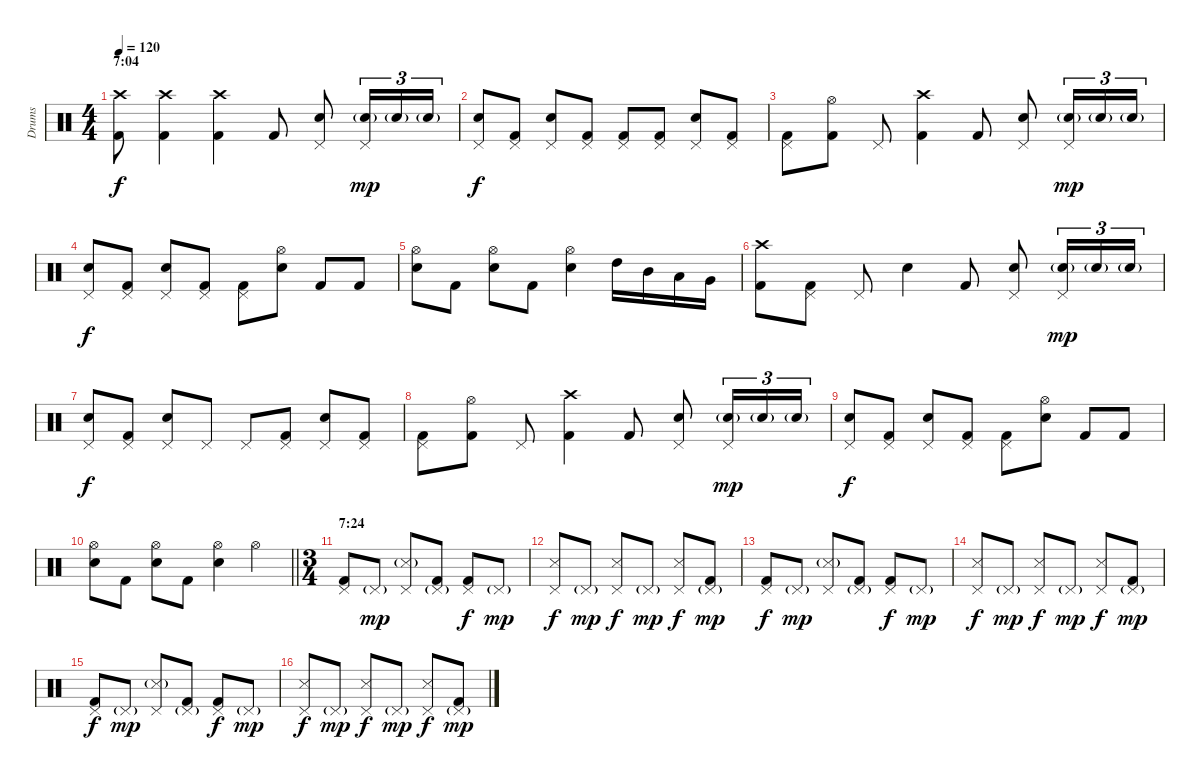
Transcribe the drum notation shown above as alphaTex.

\track ("Drums" "Drums") {instrument percussion}
\staff {score}
\articulation defaults
\ts (4 4)
\section ("" "7:04")
\tempo 120
\clef neutral
\ks c
("Crash high (hit)" "Kick (hit) 2").8{dy f} ("Crash high (hit)" "Kick (hit) 2").4 ("Crash high (hit)" "Kick (hit) 2").4 "Kick (hit) 2".8 ("Pedal Hi-Hat (hit)" "Snare (hit) 2").8 ("Pedal Hi-Hat (hit)" "Snare (hit) 2"{g}).16{tu (3 2) dy mp} "Snare (hit) 2"{g}.16{tu (3 2)} "Snare (hit) 2"{g}.16{tu (3 2)} |
("Pedal Hi-Hat (hit)" "Snare (hit) 2").8{dy f} ("Pedal Hi-Hat (hit)" "Kick (hit) 2").8 ("Pedal Hi-Hat (hit)" "Snare (hit) 2").8 ("Pedal Hi-Hat (hit)" "Kick (hit) 2").8 ("Pedal Hi-Hat (hit)" "Kick (hit) 2").8 ("Pedal Hi-Hat (hit)" "Kick (hit) 2").8 ("Pedal Hi-Hat (hit)" "Snare (hit) 2").8 ("Pedal Hi-Hat (hit)" "Kick (hit) 2").8 |
("Pedal Hi-Hat (hit)" "Kick (hit) 2").8 ("Hi-Hat (open)" "Kick (hit) 2").8 "Pedal Hi-Hat (hit)".8 ("Crash high (hit)" "Kick (hit) 2").4 "Kick (hit) 2".8 ("Pedal Hi-Hat (hit)" "Snare (hit) 2").8 ("Pedal Hi-Hat (hit)" "Snare (hit) 2"{g}).16{tu (3 2) dy mp} "Snare (hit) 2"{g}.16{tu (3 2)} "Snare (hit) 2"{g}.16{tu (3 2)} |
("Pedal Hi-Hat (hit)" "Snare (hit) 2").8{dy f} ("Pedal Hi-Hat (hit)" "Kick (hit) 2").8 ("Pedal Hi-Hat (hit)" "Snare (hit) 2").8 ("Pedal Hi-Hat (hit)" "Kick (hit) 2").8 ("Pedal Hi-Hat (hit)" "Kick (hit) 2").8 ("Hi-Hat (open)" "Snare (hit) 2").8 "Kick (hit) 2".8 "Kick (hit) 2".8 |
("Hi-Hat (open)" "Snare (hit) 2").8 "Kick (hit) 2".8 ("Hi-Hat (open)" "Snare (hit) 2").8 "Kick (hit) 2".8 ("Hi-Hat (open)" "Snare (hit) 2").4 "High Tom (hit)".16 "Mid Tom (hit)".16 "Low Tom (hit)".16 "Very Low Tom (hit)".16 |
("Crash high (hit)" "Kick (hit) 2").8 ("Pedal Hi-Hat (hit)" "Kick (hit) 2").8 "Pedal Hi-Hat (hit)".8 "Snare (hit) 2".4 "Kick (hit) 2".8 ("Pedal Hi-Hat (hit)" "Snare (hit) 2").8 ("Pedal Hi-Hat (hit)" "Snare (hit) 2"{g}).16{tu (3 2) dy mp} "Snare (hit) 2"{g}.16{tu (3 2)} "Snare (hit) 2"{g}.16{tu (3 2)} |
("Pedal Hi-Hat (hit)" "Snare (hit) 2").8{dy f} ("Pedal Hi-Hat (hit)" "Kick (hit) 2").8 ("Pedal Hi-Hat (hit)" "Snare (hit) 2").8 "Pedal Hi-Hat (hit)".8 "Pedal Hi-Hat (hit)".8 ("Pedal Hi-Hat (hit)" "Kick (hit) 2").8 ("Pedal Hi-Hat (hit)" "Snare (hit) 2").8 ("Pedal Hi-Hat (hit)" "Kick (hit) 2").8 |
("Pedal Hi-Hat (hit)" "Kick (hit) 2").8 ("Hi-Hat (open)" "Kick (hit) 2").8 "Pedal Hi-Hat (hit)".8 ("Crash high (hit)" "Kick (hit) 2").4 "Kick (hit) 2".8 ("Pedal Hi-Hat (hit)" "Snare (hit) 2").8 ("Pedal Hi-Hat (hit)" "Snare (hit) 2"{g}).16{tu (3 2) dy mp} "Snare (hit) 2"{g}.16{tu (3 2)} "Snare (hit) 2"{g}.16{tu (3 2)} |
("Pedal Hi-Hat (hit)" "Snare (hit) 2").8{dy f} ("Pedal Hi-Hat (hit)" "Kick (hit) 2").8 ("Pedal Hi-Hat (hit)" "Snare (hit) 2").8 ("Pedal Hi-Hat (hit)" "Kick (hit) 2").8 ("Pedal Hi-Hat (hit)" "Kick (hit) 2").8 ("Hi-Hat (open)" "Snare (hit) 2").8 "Kick (hit) 2".8 "Kick (hit) 2".8 |
\barLineRight lightlight
("Hi-Hat (open)" "Snare (hit) 2").8 "Kick (hit) 2".8 ("Hi-Hat (open)" "Snare (hit) 2").8 "Kick (hit) 2".8 ("Hi-Hat (open)" "Snare (hit) 2").4 "Hi-Hat (open)".4 |
\ts (3 4)
\section ("" "7:24")
("Pedal Hi-Hat (hit)" "Kick (hit) 2").8 "Pedal Hi-Hat (hit)"{g}.8{dy mp} ("Pedal Hi-Hat (hit)" "Snare (side stick) 3"{g}).8 ("Pedal Hi-Hat (hit)"{g} "Kick (hit) 2").8 ("Pedal Hi-Hat (hit)" "Kick (hit) 2").8{dy f} "Pedal Hi-Hat (hit)"{g}.8{dy mp} |
("Pedal Hi-Hat (hit)" "Snare (side stick) 3").8{dy f} "Pedal Hi-Hat (hit)"{g}.8{dy mp} ("Pedal Hi-Hat (hit)" "Snare (side stick) 3").8{dy f} "Pedal Hi-Hat (hit)"{g}.8{dy mp} ("Pedal Hi-Hat (hit)" "Snare (side stick) 3").8{dy f} ("Pedal Hi-Hat (hit)"{g} "Kick (hit) 2").8{dy mp} |
("Pedal Hi-Hat (hit)" "Kick (hit) 2").8{dy f} "Pedal Hi-Hat (hit)"{g}.8{dy mp} ("Pedal Hi-Hat (hit)" "Snare (side stick) 3"{g}).8 ("Pedal Hi-Hat (hit)"{g} "Kick (hit) 2").8 ("Pedal Hi-Hat (hit)" "Kick (hit) 2").8{dy f} "Pedal Hi-Hat (hit)"{g}.8{dy mp} |
("Pedal Hi-Hat (hit)" "Snare (side stick) 3").8{dy f} "Pedal Hi-Hat (hit)"{g}.8{dy mp} ("Pedal Hi-Hat (hit)" "Snare (side stick) 3").8{dy f} "Pedal Hi-Hat (hit)"{g}.8{dy mp} ("Pedal Hi-Hat (hit)" "Snare (side stick) 3").8{dy f} ("Pedal Hi-Hat (hit)"{g} "Kick (hit) 2").8{dy mp} |
("Pedal Hi-Hat (hit)" "Kick (hit) 2").8{dy f} "Pedal Hi-Hat (hit)"{g}.8{dy mp} ("Pedal Hi-Hat (hit)" "Snare (side stick) 3"{g}).8 ("Pedal Hi-Hat (hit)"{g} "Kick (hit) 2").8 ("Pedal Hi-Hat (hit)" "Kick (hit) 2").8{dy f} "Pedal Hi-Hat (hit)"{g}.8{dy mp} |
("Pedal Hi-Hat (hit)" "Snare (side stick) 3").8{dy f} "Pedal Hi-Hat (hit)"{g}.8{dy mp} ("Pedal Hi-Hat (hit)" "Snare (side stick) 3").8{dy f} "Pedal Hi-Hat (hit)"{g}.8{dy mp} ("Pedal Hi-Hat (hit)" "Snare (side stick) 3").8{dy f} ("Pedal Hi-Hat (hit)"{g} "Kick (hit) 2").8{dy mp}
